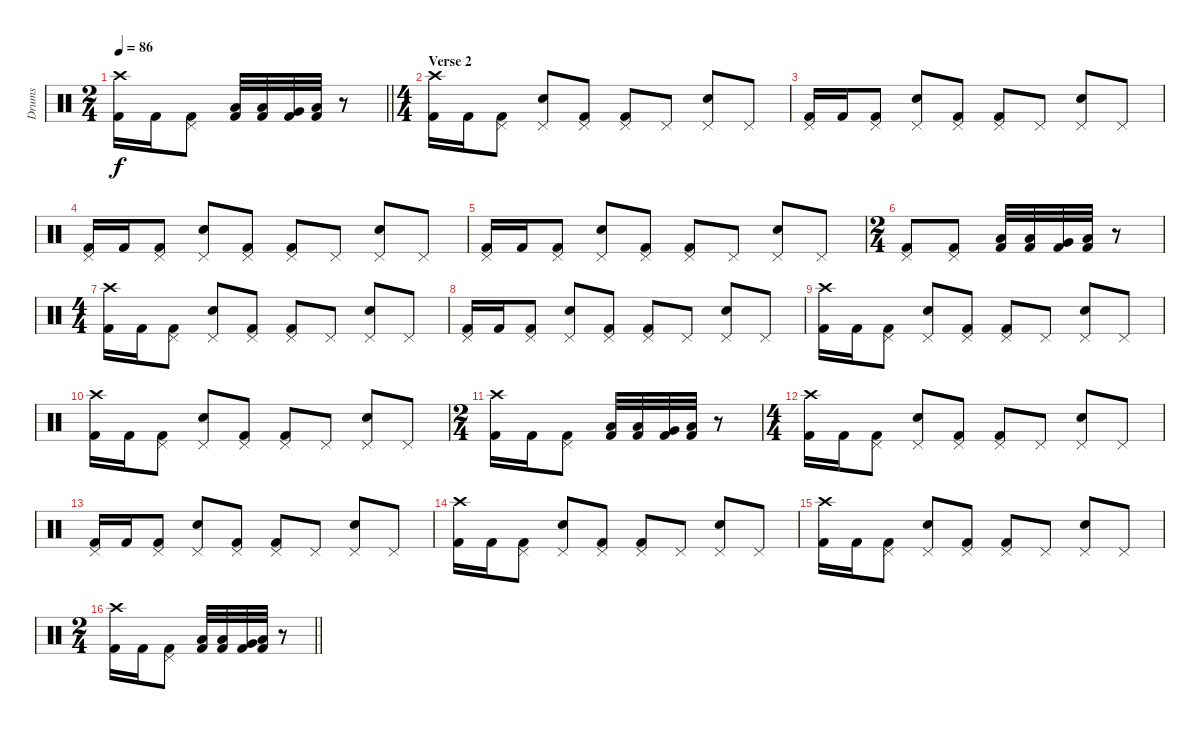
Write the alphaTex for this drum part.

\track ("Drums" "Drums") {instrument percussion}
\staff {score}
\articulation defaults
\ts (2 4)
\tempo 86
\clef neutral
\barLineRight lightlight
\ks c
("Crash high (hit)" "Kick (hit) 2").16{dy f} "Kick (hit) 2".16 ("Pedal Hi-Hat (hit)" "Kick (hit) 2").8 ("Low Tom (hit)" "Kick (hit) 2").32 ("Low Tom (hit)" "Kick (hit) 2").32 ("Very Low Tom (hit)" "Kick (hit) 2").32 ("Low Floor Tom (hit)" "Kick (hit) 2").32 r.8 |
\ts (4 4)
\section ("" "Verse 2")
("Crash high (hit)" "Kick (hit) 2").16 "Kick (hit) 2".16 ("Pedal Hi-Hat (hit)" "Kick (hit) 2").8 ("Pedal Hi-Hat (hit)" "Snare (hit) 2").8 ("Pedal Hi-Hat (hit)" "Kick (hit) 2").8 ("Pedal Hi-Hat (hit)" "Kick (hit) 2").8 "Pedal Hi-Hat (hit)".8 ("Pedal Hi-Hat (hit)" "Snare (hit) 2").8 "Pedal Hi-Hat (hit)".8 |
("Pedal Hi-Hat (hit)" "Kick (hit) 2").16 "Kick (hit) 2".16 ("Pedal Hi-Hat (hit)" "Kick (hit) 2").8 ("Pedal Hi-Hat (hit)" "Snare (hit) 2").8 ("Pedal Hi-Hat (hit)" "Kick (hit) 2").8 ("Pedal Hi-Hat (hit)" "Kick (hit) 2").8 "Pedal Hi-Hat (hit)".8 ("Pedal Hi-Hat (hit)" "Snare (hit) 2").8 "Pedal Hi-Hat (hit)".8 |
("Pedal Hi-Hat (hit)" "Kick (hit) 2").16 "Kick (hit) 2".16 ("Pedal Hi-Hat (hit)" "Kick (hit) 2").8 ("Pedal Hi-Hat (hit)" "Snare (hit) 2").8 ("Pedal Hi-Hat (hit)" "Kick (hit) 2").8 ("Pedal Hi-Hat (hit)" "Kick (hit) 2").8 "Pedal Hi-Hat (hit)".8 ("Pedal Hi-Hat (hit)" "Snare (hit) 2").8 "Pedal Hi-Hat (hit)".8 |
("Pedal Hi-Hat (hit)" "Kick (hit) 2").16 "Kick (hit) 2".16 ("Pedal Hi-Hat (hit)" "Kick (hit) 2").8 ("Pedal Hi-Hat (hit)" "Snare (hit) 2").8 ("Pedal Hi-Hat (hit)" "Kick (hit) 2").8 ("Pedal Hi-Hat (hit)" "Kick (hit) 2").8 "Pedal Hi-Hat (hit)".8 ("Pedal Hi-Hat (hit)" "Snare (hit) 2").8 "Pedal Hi-Hat (hit)".8 |
\ts (2 4)
("Pedal Hi-Hat (hit)" "Kick (hit) 2").8 ("Pedal Hi-Hat (hit)" "Kick (hit) 2").8 ("Low Tom (hit)" "Kick (hit) 2").32 ("Low Tom (hit)" "Kick (hit) 2").32 ("Very Low Tom (hit)" "Kick (hit) 2").32 ("Low Floor Tom (hit)" "Kick (hit) 2").32 r.8 |
\ts (4 4)
("Crash high (hit)" "Kick (hit) 2").16 "Kick (hit) 2".16 ("Pedal Hi-Hat (hit)" "Kick (hit) 2").8 ("Pedal Hi-Hat (hit)" "Snare (hit) 2").8 ("Pedal Hi-Hat (hit)" "Kick (hit) 2").8 ("Pedal Hi-Hat (hit)" "Kick (hit) 2").8 "Pedal Hi-Hat (hit)".8 ("Pedal Hi-Hat (hit)" "Snare (hit) 2").8 "Pedal Hi-Hat (hit)".8 |
("Pedal Hi-Hat (hit)" "Kick (hit) 2").16 "Kick (hit) 2".16 ("Pedal Hi-Hat (hit)" "Kick (hit) 2").8 ("Pedal Hi-Hat (hit)" "Snare (hit) 2").8 ("Pedal Hi-Hat (hit)" "Kick (hit) 2").8 ("Pedal Hi-Hat (hit)" "Kick (hit) 2").8 "Pedal Hi-Hat (hit)".8 ("Pedal Hi-Hat (hit)" "Snare (hit) 2").8 "Pedal Hi-Hat (hit)".8 |
("Crash high (hit)" "Kick (hit) 2").16 "Kick (hit) 2".16 ("Pedal Hi-Hat (hit)" "Kick (hit) 2").8 ("Pedal Hi-Hat (hit)" "Snare (hit) 2").8 ("Pedal Hi-Hat (hit)" "Kick (hit) 2").8 ("Pedal Hi-Hat (hit)" "Kick (hit) 2").8 "Pedal Hi-Hat (hit)".8 ("Pedal Hi-Hat (hit)" "Snare (hit) 2").8 "Pedal Hi-Hat (hit)".8 |
("Crash high (hit)" "Kick (hit) 2").16 "Kick (hit) 2".16 ("Pedal Hi-Hat (hit)" "Kick (hit) 2").8 ("Pedal Hi-Hat (hit)" "Snare (hit) 2").8 ("Pedal Hi-Hat (hit)" "Kick (hit) 2").8 ("Pedal Hi-Hat (hit)" "Kick (hit) 2").8 "Pedal Hi-Hat (hit)".8 ("Pedal Hi-Hat (hit)" "Snare (hit) 2").8 "Pedal Hi-Hat (hit)".8 |
\ts (2 4)
("Crash high (hit)" "Kick (hit) 2").16 "Kick (hit) 2".16 ("Pedal Hi-Hat (hit)" "Kick (hit) 2").8 ("Low Tom (hit)" "Kick (hit) 2").32 ("Low Tom (hit)" "Kick (hit) 2").32 ("Very Low Tom (hit)" "Kick (hit) 2").32 ("Low Floor Tom (hit)" "Kick (hit) 2").32 r.8 |
\ts (4 4)
("Crash high (hit)" "Kick (hit) 2").16 "Kick (hit) 2".16 ("Pedal Hi-Hat (hit)" "Kick (hit) 2").8 ("Pedal Hi-Hat (hit)" "Snare (hit) 2").8 ("Pedal Hi-Hat (hit)" "Kick (hit) 2").8 ("Pedal Hi-Hat (hit)" "Kick (hit) 2").8 "Pedal Hi-Hat (hit)".8 ("Pedal Hi-Hat (hit)" "Snare (hit) 2").8 "Pedal Hi-Hat (hit)".8 |
("Pedal Hi-Hat (hit)" "Kick (hit) 2").16 "Kick (hit) 2".16 ("Pedal Hi-Hat (hit)" "Kick (hit) 2").8 ("Pedal Hi-Hat (hit)" "Snare (hit) 2").8 ("Pedal Hi-Hat (hit)" "Kick (hit) 2").8 ("Pedal Hi-Hat (hit)" "Kick (hit) 2").8 "Pedal Hi-Hat (hit)".8 ("Pedal Hi-Hat (hit)" "Snare (hit) 2").8 "Pedal Hi-Hat (hit)".8 |
("Crash high (hit)" "Kick (hit) 2").16 "Kick (hit) 2".16 ("Pedal Hi-Hat (hit)" "Kick (hit) 2").8 ("Pedal Hi-Hat (hit)" "Snare (hit) 2").8 ("Pedal Hi-Hat (hit)" "Kick (hit) 2").8 ("Pedal Hi-Hat (hit)" "Kick (hit) 2").8 "Pedal Hi-Hat (hit)".8 ("Pedal Hi-Hat (hit)" "Snare (hit) 2").8 "Pedal Hi-Hat (hit)".8 |
("Crash high (hit)" "Kick (hit) 2").16 "Kick (hit) 2".16 ("Pedal Hi-Hat (hit)" "Kick (hit) 2").8 ("Pedal Hi-Hat (hit)" "Snare (hit) 2").8 ("Pedal Hi-Hat (hit)" "Kick (hit) 2").8 ("Pedal Hi-Hat (hit)" "Kick (hit) 2").8 "Pedal Hi-Hat (hit)".8 ("Pedal Hi-Hat (hit)" "Snare (hit) 2").8 "Pedal Hi-Hat (hit)".8 |
\ts (2 4)
\barLineRight lightlight
("Crash high (hit)" "Kick (hit) 2").16 "Kick (hit) 2".16 ("Pedal Hi-Hat (hit)" "Kick (hit) 2").8 ("Low Tom (hit)" "Kick (hit) 2").32 ("Low Tom (hit)" "Kick (hit) 2").32 ("Very Low Tom (hit)" "Kick (hit) 2").32 ("Low Floor Tom (hit)" "Kick (hit) 2").32 r.8
